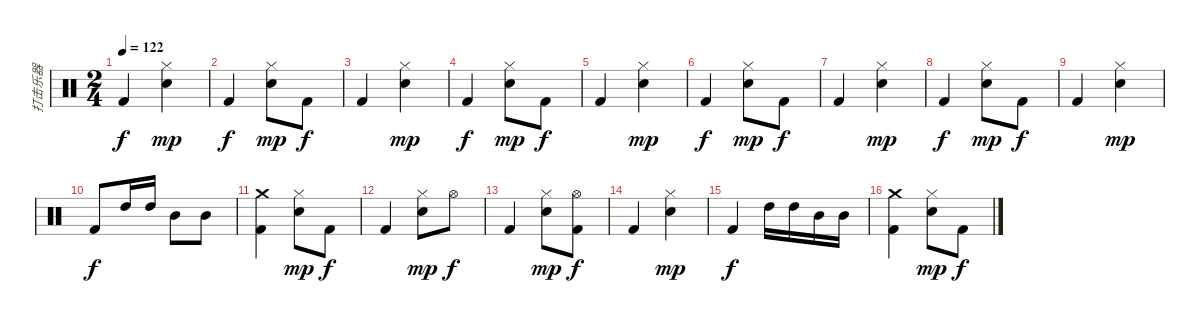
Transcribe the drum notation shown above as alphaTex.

\track ("打击乐器" "打击乐器") {instrument percussion}
\staff {score}
\articulation defaults
\ts (2 4)
\tempo 122
\clef neutral
\ks c "Kick (hit) 2".4{dy f}
("Hi-Hat (closed)" "Electric Snare (hit)").4{dy mp} |
"Kick (hit) 2".4{dy f} ("Hi-Hat (closed)" "Electric Snare (hit)").8{dy mp} "Kick (hit) 2".8{dy f} |
"Kick (hit) 2".4 ("Hi-Hat (closed)" "Electric Snare (hit)").4{dy mp} |
"Kick (hit) 2".4{dy f} ("Hi-Hat (closed)" "Electric Snare (hit)").8{dy mp} "Kick (hit) 2".8{dy f} |
"Kick (hit) 2".4 ("Hi-Hat (closed)" "Electric Snare (hit)").4{dy mp} |
"Kick (hit) 2".4{dy f} ("Hi-Hat (closed)" "Electric Snare (hit)").8{dy mp} "Kick (hit) 2".8{dy f} |
"Kick (hit) 2".4 ("Hi-Hat (closed)" "Electric Snare (hit)").4{dy mp} |
"Kick (hit) 2".4{dy f} ("Hi-Hat (closed)" "Electric Snare (hit)").8{dy mp} "Kick (hit) 2".8{dy f} |
"Kick (hit) 2".4 ("Hi-Hat (closed)" "Electric Snare (hit)").4{dy mp} |
"Kick (hit) 2".8{dy f} "High Tom (hit)".16 "High Tom (hit)".16 "Mid Tom (hit)".8 "Mid Tom (hit)".8 |
("Crash medium (hit)" "Kick (hit) 2").4 ("Hi-Hat (closed)" "Electric Snare (hit)").8{dy mp} "Kick (hit) 2".8{dy f} |
"Kick (hit) 2".4 ("Hi-Hat (closed)" "Electric Snare (hit)").8{dy mp} "Hi-Hat (open)".8{dy f} |
"Kick (hit) 2".4 ("Hi-Hat (closed)" "Electric Snare (hit)").8{dy mp} ("Hi-Hat (open)" "Kick (hit) 2").8{dy f} |
"Kick (hit) 2".4 ("Hi-Hat (closed)" "Electric Snare (hit)").4{dy mp} |
"Kick (hit) 2".4{dy f} "High Tom (hit)".16 "High Tom (hit)".16 "Mid Tom (hit)".16 "Mid Tom (hit)".16 |
("Crash medium (hit)" "Kick (hit) 2").4 ("Hi-Hat (closed)" "Electric Snare (hit)").8{dy mp} "Kick (hit) 2".8{dy f}
